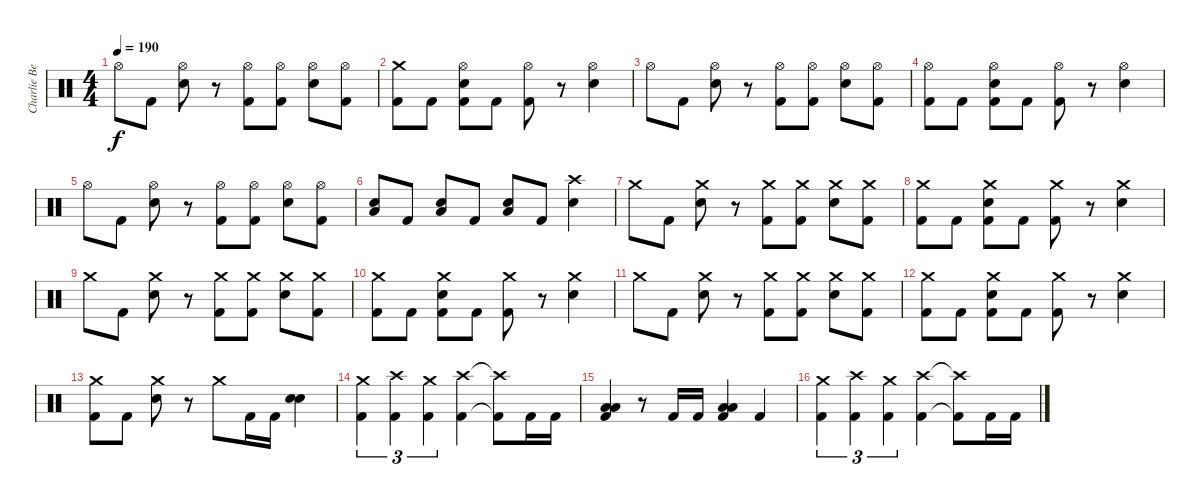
\track ("Charlie Benante" "Charlie Be") {instrument percussion}
\staff {score}
\articulation defaults
\ts (4 4)
\tempo 190
\clef neutral
\ks c "Hi-Hat (open)".8{dy f} "Kick (hit) 2".8
("Snare (hit) 2" "Hi-Hat (open)").8 r.8 ("Hi-Hat (open)" "Kick (hit) 2").8 ("Hi-Hat (open)" "Kick (hit) 2").8 ("Snare (hit) 2" "Hi-Hat (open)").8 ("Hi-Hat (open)" "Kick (hit) 2").8 |
("Crash medium (hit)" "Kick (hit) 2").8 "Kick (hit) 2".8 ("Snare (hit) 2" "Hi-Hat (open)" "Kick (hit) 2").8 "Kick (hit) 2".8 ("Hi-Hat (open)" "Kick (hit) 2").8 r.8 ("Snare (hit) 2" "Hi-Hat (open)").4 |
"Hi-Hat (open)".8 "Kick (hit) 2".8 ("Snare (hit) 2" "Hi-Hat (open)").8 r.8 ("Hi-Hat (open)" "Kick (hit) 2").8 ("Hi-Hat (open)" "Kick (hit) 2").8 ("Snare (hit) 2" "Hi-Hat (open)").8 ("Hi-Hat (open)" "Kick (hit) 2").8 |
("Hi-Hat (open)" "Kick (hit) 2").8 "Kick (hit) 2".8 ("Snare (hit) 2" "Hi-Hat (open)" "Kick (hit) 2").8 "Kick (hit) 2".8 ("Hi-Hat (open)" "Kick (hit) 2").8 r.8 ("Snare (hit) 2" "Hi-Hat (open)").4 |
"Hi-Hat (open)".8 "Kick (hit) 2".8 ("Snare (hit) 2" "Hi-Hat (open)").8 r.8 ("Hi-Hat (open)" "Kick (hit) 2").8 ("Hi-Hat (open)" "Kick (hit) 2").8 ("Snare (hit) 2" "Hi-Hat (open)").8 ("Hi-Hat (open)" "Kick (hit) 2").8 |
("Low Tom (hit)" "Snare (hit) 2").8 "Kick (hit) 2".8 ("Low Tom (hit)" "Snare (hit) 2").8 "Kick (hit) 2".8 ("Low Tom (hit)" "Snare (hit) 2").8 "Kick (hit) 2".8 ("Snare (hit) 2" "Crash high (hit)").4 |
"Crash medium (hit)".8 "Kick (hit) 2".8 ("Snare (hit) 2" "Crash medium (hit)").8 r.8 ("Crash medium (hit)" "Kick (hit) 2").8 ("Crash medium (hit)" "Kick (hit) 2").8 ("Snare (hit) 2" "Crash medium (hit)").8 ("Crash medium (hit)" "Kick (hit) 2").8 |
("Crash medium (hit)" "Kick (hit) 2").8 "Kick (hit) 2".8 ("Snare (hit) 2" "Crash medium (hit)" "Kick (hit) 2").8 "Kick (hit) 2".8 ("Crash medium (hit)" "Kick (hit) 2").8 r.8 ("Snare (hit) 2" "Crash medium (hit)").4 |
"Crash medium (hit)".8 "Kick (hit) 2".8 ("Snare (hit) 2" "Crash medium (hit)").8 r.8 ("Crash medium (hit)" "Kick (hit) 2").8 ("Crash medium (hit)" "Kick (hit) 2").8 ("Snare (hit) 2" "Crash medium (hit)").8 ("Crash medium (hit)" "Kick (hit) 2").8 |
("Crash medium (hit)" "Kick (hit) 2").8 "Kick (hit) 2".8 ("Snare (hit) 2" "Crash medium (hit)" "Kick (hit) 2").8 "Kick (hit) 2".8 ("Crash medium (hit)" "Kick (hit) 2").8 r.8 ("Snare (hit) 2" "Crash medium (hit)").4 |
"Crash medium (hit)".8 "Kick (hit) 2".8 ("Snare (hit) 2" "Crash medium (hit)").8 r.8 ("Crash medium (hit)" "Kick (hit) 2").8 ("Crash medium (hit)" "Kick (hit) 2").8 ("Snare (hit) 2" "Crash medium (hit)").8 ("Crash medium (hit)" "Kick (hit) 2").8 |
("Crash medium (hit)" "Kick (hit) 2").8 "Kick (hit) 2".8 ("Snare (hit) 2" "Crash medium (hit)" "Kick (hit) 2").8 "Kick (hit) 2".8 ("Crash medium (hit)" "Kick (hit) 2").8 r.8 ("Snare (hit) 2" "Crash medium (hit)").4 |
("Crash medium (hit)" "Kick (hit) 2").8 "Kick (hit) 2".8 ("Snare (hit) 2" "Crash medium (hit)").8 r.8 "Crash medium (hit)".8 "Kick (hit) 2".16 "Kick (hit) 2".16 ("Electric Snare (hit)" "Snare (hit) 2").4 |
("Crash medium (hit)" "Kick (hit) 2").4{tu (3 2)} ("Crash high (hit)" "Kick (hit) 2").4{tu (3 2)} ("Crash medium (hit)" "Kick (hit) 2").4{tu (3 2)} ("Crash high (hit)" "Kick (hit) 2").4 ("Crash high (hit)"{t} "Kick (hit) 2"{t}).8 "Kick (hit) 2".16 "Kick (hit) 2".16 |
("Low Floor Tom (hit)" "Low Tom (hit)" "Kick (hit) 2").4 r.8 "Kick (hit) 2".16 "Kick (hit) 2".16 ("Low Floor Tom (hit)" "Low Tom (hit)" "Kick (hit) 2").4 "Kick (hit) 2".4 |
("Crash medium (hit)" "Kick (hit) 2").4{tu (3 2)} ("Crash high (hit)" "Kick (hit) 2").4{tu (3 2)} ("Crash medium (hit)" "Kick (hit) 2").4{tu (3 2)} ("Crash high (hit)" "Kick (hit) 2").4 ("Crash high (hit)"{t} "Kick (hit) 2"{t}).8 "Kick (hit) 2".16 "Kick (hit) 2".16
